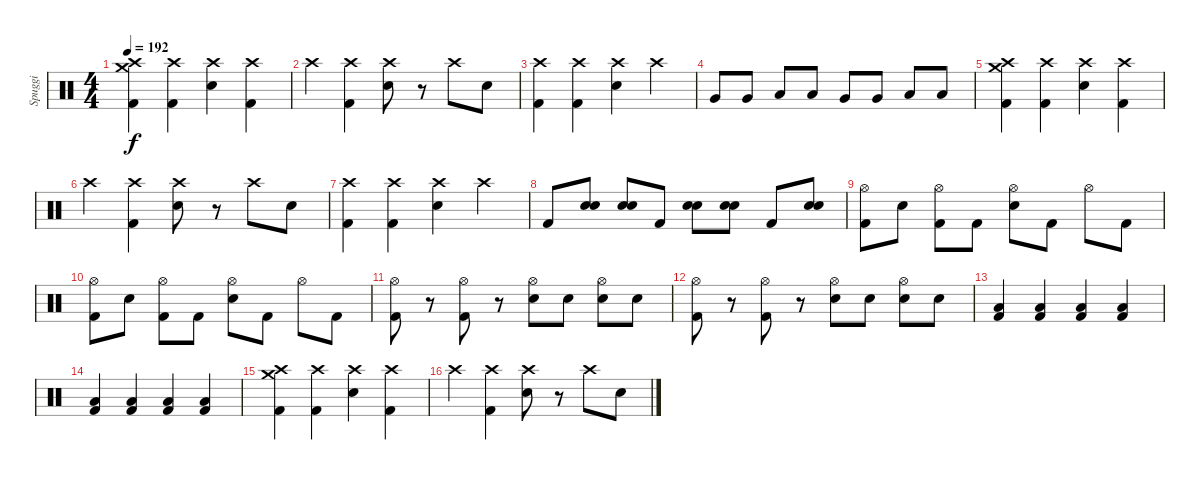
\track ("Spuggi" "Spuggi") {instrument percussion}
\staff {score}
\articulation defaults
\ts (4 4)
\tempo 192
\clef neutral
\ks c
("Crash high (hit)" "Crash medium (hit)" "Kick (hit) 2").4{dy f} ("Crash high (hit)" "Kick (hit) 2").4 ("Crash high (hit)" "Snare (hit) 2").4 ("Crash high (hit)" "Kick (hit) 2").4 |
"Crash high (hit)".4 ("Crash high (hit)" "Kick (hit) 2").4 ("Crash high (hit)" "Snare (hit) 2").8 r.8 "Crash high (hit)".8 "Snare (hit) 2".8 |
("Crash high (hit)" "Kick (hit) 2").4 ("Crash high (hit)" "Kick (hit) 2").4 ("Crash high (hit)" "Snare (hit) 2").4 "Crash high (hit)".4 |
"Very Low Tom (hit)".8 "Very Low Tom (hit)".8 "Low Tom (hit)".8 "Low Tom (hit)".8 "Very Low Tom (hit)".8 "Very Low Tom (hit)".8 "Low Floor Tom (hit)".8 "Low Floor Tom (hit)".8 |
("Crash high (hit)" "Crash medium (hit)" "Kick (hit) 2").4 ("Crash high (hit)" "Kick (hit) 2").4 ("Crash high (hit)" "Snare (hit) 2").4 ("Crash high (hit)" "Kick (hit) 2").4 |
"Crash high (hit)".4 ("Crash high (hit)" "Kick (hit) 2").4 ("Crash high (hit)" "Snare (hit) 2").8 r.8 "Crash high (hit)".8 "Snare (hit) 2".8 |
("Crash high (hit)" "Kick (hit) 2").4 ("Crash high (hit)" "Kick (hit) 2").4 ("Crash high (hit)" "Snare (hit) 2").4 "Crash high (hit)".4 |
"Kick (hit) 2".8 ("Snare (hit) 2" "Snare (hit) 2").8 ("Snare (hit) 2" "Snare (hit) 2").8 "Kick (hit) 2".8 ("Snare (hit) 2" "Snare (hit) 2").8 ("Snare (hit) 2" "Snare (hit) 2").8 "Kick (hit) 2".8 ("Snare (hit) 2" "Snare (hit) 2").8 |
("Hi-Hat (open)" "Kick (hit) 2").8 "Snare (hit) 2".8 ("Hi-Hat (open)" "Kick (hit) 2").8 "Kick (hit) 2".8 ("Hi-Hat (open)" "Snare (hit) 2").8 "Kick (hit) 2".8 "Hi-Hat (open)".8 "Kick (hit) 2".8 |
("Hi-Hat (open)" "Kick (hit) 2").8 "Snare (hit) 2".8 ("Hi-Hat (open)" "Kick (hit) 2").8 "Kick (hit) 2".8 ("Hi-Hat (open)" "Snare (hit) 2").8 "Kick (hit) 2".8 "Hi-Hat (open)".8 "Kick (hit) 2".8 |
("Hi-Hat (open)" "Kick (hit) 2").8 r.8 ("Hi-Hat (open)" "Kick (hit) 2").8 r.8 ("Hi-Hat (open)" "Snare (hit) 2").8 "Snare (hit) 2".8 ("Hi-Hat (open)" "Snare (hit) 2").8 "Snare (hit) 2".8 |
("Hi-Hat (open)" "Kick (hit) 2").8 r.8 ("Hi-Hat (open)" "Kick (hit) 2").8 r.8 ("Hi-Hat (open)" "Snare (hit) 2").8 "Snare (hit) 2".8 ("Hi-Hat (open)" "Snare (hit) 2").8 "Snare (hit) 2".8 |
("Low Tom (hit)" "Kick (hit) 2").4 ("Low Tom (hit)" "Kick (hit) 2").4 ("Low Tom (hit)" "Kick (hit) 2").4 ("Low Tom (hit)" "Kick (hit) 2").4 |
("Low Tom (hit)" "Kick (hit) 2").4 ("Low Tom (hit)" "Kick (hit) 2").4 ("Low Tom (hit)" "Kick (hit) 2").4 ("Low Tom (hit)" "Kick (hit) 2").4 |
("Crash high (hit)" "Crash medium (hit)" "Kick (hit) 2").4 ("Crash high (hit)" "Kick (hit) 2").4 ("Crash high (hit)" "Snare (hit) 2").4 ("Crash high (hit)" "Kick (hit) 2").4 |
"Crash high (hit)".4 ("Crash high (hit)" "Kick (hit) 2").4 ("Crash high (hit)" "Snare (hit) 2").8 r.8 "Crash high (hit)".8 "Snare (hit) 2".8
